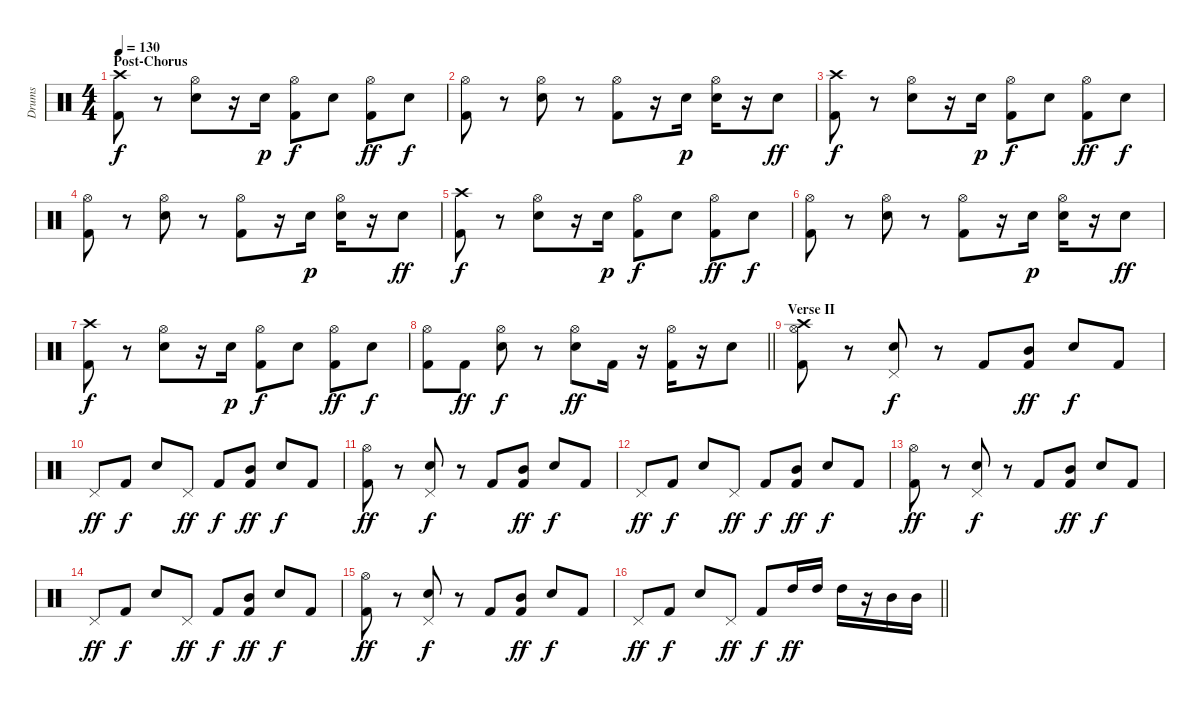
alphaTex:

\track ("Drums" "Drums") {instrument percussion}
\staff {score}
\articulation defaults
\ts (4 4)
\section ("" "Post-Chorus")
\tempo 130
\clef neutral
\ks c
("Crash high (hit)" "Kick (hit) 2").8{dy f} r.8 ("Hi-Hat (open)" "Snare (hit) 2").8 r.16 "Snare (hit) 2".16{dy p} ("Hi-Hat (open)" "Kick (hit) 2").8{dy f} "Snare (hit) 2".8 ("Hi-Hat (open)" "Kick (hit) 2").8{dy ff} "Snare (hit) 2".8{dy f} |
("Hi-Hat (open)" "Kick (hit) 2").8 r.8 ("Hi-Hat (open)" "Snare (hit) 2").8 r.8 ("Hi-Hat (open)" "Kick (hit) 2").8 r.16 "Snare (hit) 2".16{dy p} ("Hi-Hat (open)" "Snare (hit) 2").16 r.16 "Snare (hit) 2".8{dy ff} |
("Crash high (hit)" "Kick (hit) 2").8{dy f} r.8 ("Hi-Hat (open)" "Snare (hit) 2").8 r.16 "Snare (hit) 2".16{dy p} ("Hi-Hat (open)" "Kick (hit) 2").8{dy f} "Snare (hit) 2".8 ("Hi-Hat (open)" "Kick (hit) 2").8{dy ff} "Snare (hit) 2".8{dy f} |
("Hi-Hat (open)" "Kick (hit) 2").8 r.8 ("Hi-Hat (open)" "Snare (hit) 2").8 r.8 ("Hi-Hat (open)" "Kick (hit) 2").8 r.16 "Snare (hit) 2".16{dy p} ("Hi-Hat (open)" "Snare (hit) 2").16 r.16 "Snare (hit) 2".8{dy ff} |
("Crash high (hit)" "Kick (hit) 2").8{dy f} r.8 ("Hi-Hat (open)" "Snare (hit) 2").8 r.16 "Snare (hit) 2".16{dy p} ("Hi-Hat (open)" "Kick (hit) 2").8{dy f} "Snare (hit) 2".8 ("Hi-Hat (open)" "Kick (hit) 2").8{dy ff} "Snare (hit) 2".8{dy f} |
("Hi-Hat (open)" "Kick (hit) 2").8 r.8 ("Hi-Hat (open)" "Snare (hit) 2").8 r.8 ("Hi-Hat (open)" "Kick (hit) 2").8 r.16 "Snare (hit) 2".16{dy p} ("Hi-Hat (open)" "Snare (hit) 2").16 r.16 "Snare (hit) 2".8{dy ff} |
("Crash high (hit)" "Kick (hit) 2").8{dy f} r.8 ("Hi-Hat (open)" "Snare (hit) 2").8 r.16 "Snare (hit) 2".16{dy p} ("Hi-Hat (open)" "Kick (hit) 2").8{dy f} "Snare (hit) 2".8 ("Hi-Hat (open)" "Kick (hit) 2").8{dy ff} "Snare (hit) 2".8{dy f} |
\barLineRight lightlight
("Hi-Hat (open)" "Kick (hit) 2").8 "Kick (hit) 2".8{dy ff} ("Hi-Hat (open)" "Snare (hit) 2").8{dy f} r.8 ("Hi-Hat (open)" "Snare (hit) 2").8{dy ff} "Kick (hit) 2".16 r.16 ("Hi-Hat (open)" "Kick (hit) 2").16 r.16 "Snare (hit) 2".8 |
\section ("" "Verse II")
("Crash high (hit)" "Hi-Hat (open)" "Kick (hit) 2").8 r.8 ("Pedal Hi-Hat (hit)" "Snare (hit) 2").8{dy f} r.8 "Kick (hit) 2".8 ("Mid Tom (hit)" "Kick (hit) 2").8{dy ff} "Snare (hit) 2".8{dy f} "Kick (hit) 2".8 |
"Pedal Hi-Hat (hit)".8{dy ff} "Kick (hit) 2".8{dy f} "Snare (hit) 2".8 "Pedal Hi-Hat (hit)".8{dy ff} "Kick (hit) 2".8{dy f} ("Mid Tom (hit)" "Kick (hit) 2").8{dy ff} "Snare (hit) 2".8{dy f} "Kick (hit) 2".8 |
("Hi-Hat (open)" "Kick (hit) 2").8{dy ff} r.8 ("Pedal Hi-Hat (hit)" "Snare (hit) 2").8{dy f} r.8 "Kick (hit) 2".8 ("Mid Tom (hit)" "Kick (hit) 2").8{dy ff} "Snare (hit) 2".8{dy f} "Kick (hit) 2".8 |
"Pedal Hi-Hat (hit)".8{dy ff} "Kick (hit) 2".8{dy f} "Snare (hit) 2".8 "Pedal Hi-Hat (hit)".8{dy ff} "Kick (hit) 2".8{dy f} ("Mid Tom (hit)" "Kick (hit) 2").8{dy ff} "Snare (hit) 2".8{dy f} "Kick (hit) 2".8 |
("Hi-Hat (open)" "Kick (hit) 2").8{dy ff} r.8 ("Pedal Hi-Hat (hit)" "Snare (hit) 2").8{dy f} r.8 "Kick (hit) 2".8 ("Mid Tom (hit)" "Kick (hit) 2").8{dy ff} "Snare (hit) 2".8{dy f} "Kick (hit) 2".8 |
"Pedal Hi-Hat (hit)".8{dy ff} "Kick (hit) 2".8{dy f} "Snare (hit) 2".8 "Pedal Hi-Hat (hit)".8{dy ff} "Kick (hit) 2".8{dy f} ("Mid Tom (hit)" "Kick (hit) 2").8{dy ff} "Snare (hit) 2".8{dy f} "Kick (hit) 2".8 |
("Hi-Hat (open)" "Kick (hit) 2").8{dy ff} r.8 ("Pedal Hi-Hat (hit)" "Snare (hit) 2").8{dy f} r.8 "Kick (hit) 2".8 ("Mid Tom (hit)" "Kick (hit) 2").8{dy ff} "Snare (hit) 2".8{dy f} "Kick (hit) 2".8 |
\barLineRight lightlight "Pedal Hi-Hat (hit)".8{dy ff} "Kick (hit) 2".8{dy f} "Snare (hit) 2".8 "Pedal Hi-Hat (hit)".8{dy ff} "Kick (hit) 2".8{dy f} "High Tom (hit)".16{dy ff} "High Tom (hit)".16 "High Tom (hit)".16
r.16 "Mid Tom (hit)".16 "Mid Tom (hit)".16
